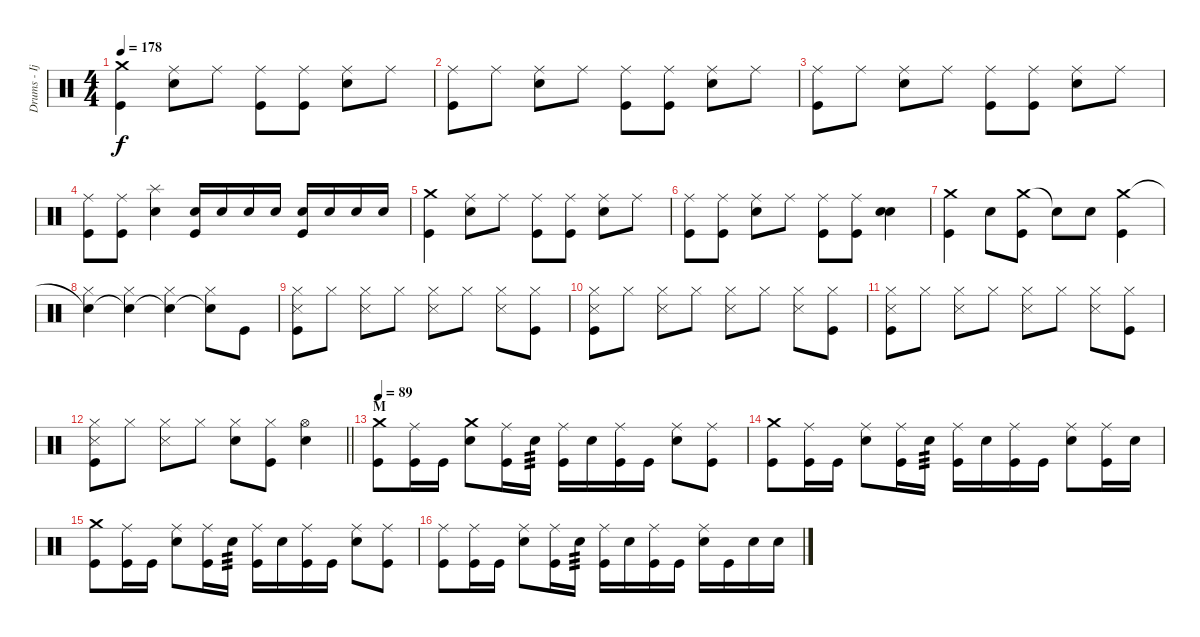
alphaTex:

\track ("Drums - Ijichi" "Drums - Ij") {instrument percussion}
\staff {score}
\articulation defaults
\ts (4 4)
\tempo 178
\clef neutral
\ks c
("Crash medium (hit)" "Kick (hit)").4{dy f} ("Ride (middle)" "Electric Snare (hit)").8 "Ride (middle)".8 ("Ride (middle)" "Kick (hit)").8 ("Ride (middle)" "Kick (hit)").8 ("Ride (middle)" "Electric Snare (hit)").8 "Ride (middle)".8 |
("Ride (middle)" "Kick (hit)").8 "Ride (middle)".8 ("Ride (middle)" "Electric Snare (hit)").8 "Ride (middle)".8 ("Ride (middle)" "Kick (hit)").8 ("Ride (middle)" "Kick (hit)").8 ("Ride (middle)" "Electric Snare (hit)").8 "Ride (middle)".8 |
("Ride (middle)" "Kick (hit)").8 "Ride (middle)".8 ("Ride (middle)" "Electric Snare (hit)").8 "Ride (middle)".8 ("Ride (middle)" "Kick (hit)").8 ("Ride (middle)" "Kick (hit)").8 ("Ride (middle)" "Electric Snare (hit)").8 "Ride (middle)".8 |
("Ride (middle)" "Kick (hit)").8 ("Ride (middle)" "Kick (hit)").8 ("Splash (hit)" "Electric Snare (hit)").4 ("Electric Snare (hit)" "Kick (hit)").16 "Electric Snare (hit)".16 "Electric Snare (hit)".16 "Electric Snare (hit)".16 ("Electric Snare (hit)" "Kick (hit)").16 "Electric Snare (hit)".16 "Electric Snare (hit)".16 "Electric Snare (hit)".16 |
("Crash medium (hit)" "Kick (hit)").4 ("Ride (middle)" "Electric Snare (hit)").8 "Ride (middle)".8 ("Ride (middle)" "Kick (hit)").8 ("Ride (middle)" "Kick (hit)").8 ("Ride (middle)" "Electric Snare (hit)").8 "Ride (middle)".8 |
("Ride (middle)" "Kick (hit)").8 ("Ride (middle)" "Kick (hit)").8 ("Ride (middle)" "Electric Snare (hit)").8 "Ride (middle)".8 ("Ride (middle)" "Kick (hit)").8 ("Ride (middle)" "Kick (hit)").8 ("Electric Snare (hit)" "Electric Snare (hit)").4 |
("Crash medium (hit)" "Kick (hit)").4 "Electric Snare (hit)".8 ("Crash medium (hit)" "Kick (hit)").8 "Snare (hit)"{t}.8 "Electric Snare (hit)".8 ("Crash medium (hit)" "Kick (hit)").4 |
("Snare (hit)"{t} "Hi-Hat (closed)").4 ("Snare (hit)"{t} "Hi-Hat (closed)").4 ("Snare (hit)"{t} "Hi-Hat (closed)").4 ("Snare (hit)"{t} "Hi-Hat (closed)").8 "Kick (hit)".8 |
("Hi-Hat (closed)" "Snare (side stick) 3" "Kick (hit)").8 "Hi-Hat (closed)".8 ("Hi-Hat (closed)" "Snare (side stick) 3").8 "Hi-Hat (closed)".8 ("Hi-Hat (closed)" "Snare (side stick) 3").8 "Hi-Hat (closed)".8 ("Hi-Hat (closed)" "Snare (side stick) 3").8 ("Hi-Hat (closed)" "Kick (hit)").8 |
("Hi-Hat (closed)" "Snare (side stick) 3" "Kick (hit)").8 "Hi-Hat (closed)".8 ("Hi-Hat (closed)" "Snare (side stick) 3").8 "Hi-Hat (closed)".8 ("Hi-Hat (closed)" "Snare (side stick) 3").8 "Hi-Hat (closed)".8 ("Hi-Hat (closed)" "Snare (side stick) 3").8 ("Hi-Hat (closed)" "Kick (hit)").8 |
("Hi-Hat (closed)" "Snare (side stick) 3" "Kick (hit)").8 "Hi-Hat (closed)".8 ("Hi-Hat (closed)" "Snare (side stick) 3").8 "Hi-Hat (closed)".8 ("Hi-Hat (closed)" "Snare (side stick) 3").8 "Hi-Hat (closed)".8 ("Hi-Hat (closed)" "Snare (side stick) 3").8 ("Hi-Hat (closed)" "Kick (hit)").8 |
\barLineRight lightlight
("Hi-Hat (closed)" "Snare (side stick) 3" "Kick (hit)").8 "Hi-Hat (closed)".8 ("Hi-Hat (closed)" "Snare (side stick) 3").8 "Hi-Hat (closed)".8 ("Hi-Hat (closed)" "Electric Snare (hit)").8 ("Hi-Hat (closed)" "Kick (hit)").8 ("Hi-Hat (open)" "Electric Snare (hit)").4 |
\section ("" "M")
\tempo 89
("Crash medium (hit)" "Kick (hit)").8 ("Ride (middle)" "Kick (hit)").16 "Kick (hit)".16 ("Crash medium (hit)" "Electric Snare (hit)").8 ("Ride (middle)" "Kick (hit)").16 "Electric Snare (hit)".16{tp 3} ("Ride (middle)" "Kick (hit)").16 "Electric Snare (hit)".16 ("Ride (middle)" "Kick (hit)").16 "Kick (hit)".16 ("Ride (middle)" "Electric Snare (hit)").8 ("Ride (middle)" "Kick (hit)").8 |
("Crash medium (hit)" "Kick (hit)").8 ("Ride (middle)" "Kick (hit)").16 "Kick (hit)".16 ("Ride (middle)" "Electric Snare (hit)").8 ("Ride (middle)" "Kick (hit)").16 "Electric Snare (hit)".16{tp 3} ("Ride (middle)" "Kick (hit)").16 "Electric Snare (hit)".16 ("Ride (middle)" "Kick (hit)").16 "Kick (hit)".16 ("Ride (middle)" "Electric Snare (hit)").8 ("Ride (middle)" "Kick (hit)").16 "Electric Snare (hit)".16 |
("Crash medium (hit)" "Kick (hit)").8 ("Ride (middle)" "Kick (hit)").16 "Kick (hit)".16 ("Ride (middle)" "Electric Snare (hit)").8 ("Ride (middle)" "Kick (hit)").16 "Electric Snare (hit)".16{tp 3} ("Ride (middle)" "Kick (hit)").16 "Electric Snare (hit)".16 ("Ride (middle)" "Kick (hit)").16 "Kick (hit)".16 ("Ride (middle)" "Electric Snare (hit)").8 ("Ride (middle)" "Kick (hit)").8 |
("Ride (middle)" "Kick (hit)").8 ("Ride (middle)" "Kick (hit)").16 "Kick (hit)".16 ("Ride (middle)" "Electric Snare (hit)").8 ("Ride (middle)" "Kick (hit)").16 "Electric Snare (hit)".16{tp 3} ("Ride (middle)" "Kick (hit)").16 "Electric Snare (hit)".16 ("Ride (middle)" "Kick (hit)").16 "Kick (hit)".16 ("Ride (middle)" "Electric Snare (hit)").16 "Kick (hit)".16 "Electric Snare (hit)".16 "Electric Snare (hit)".16
